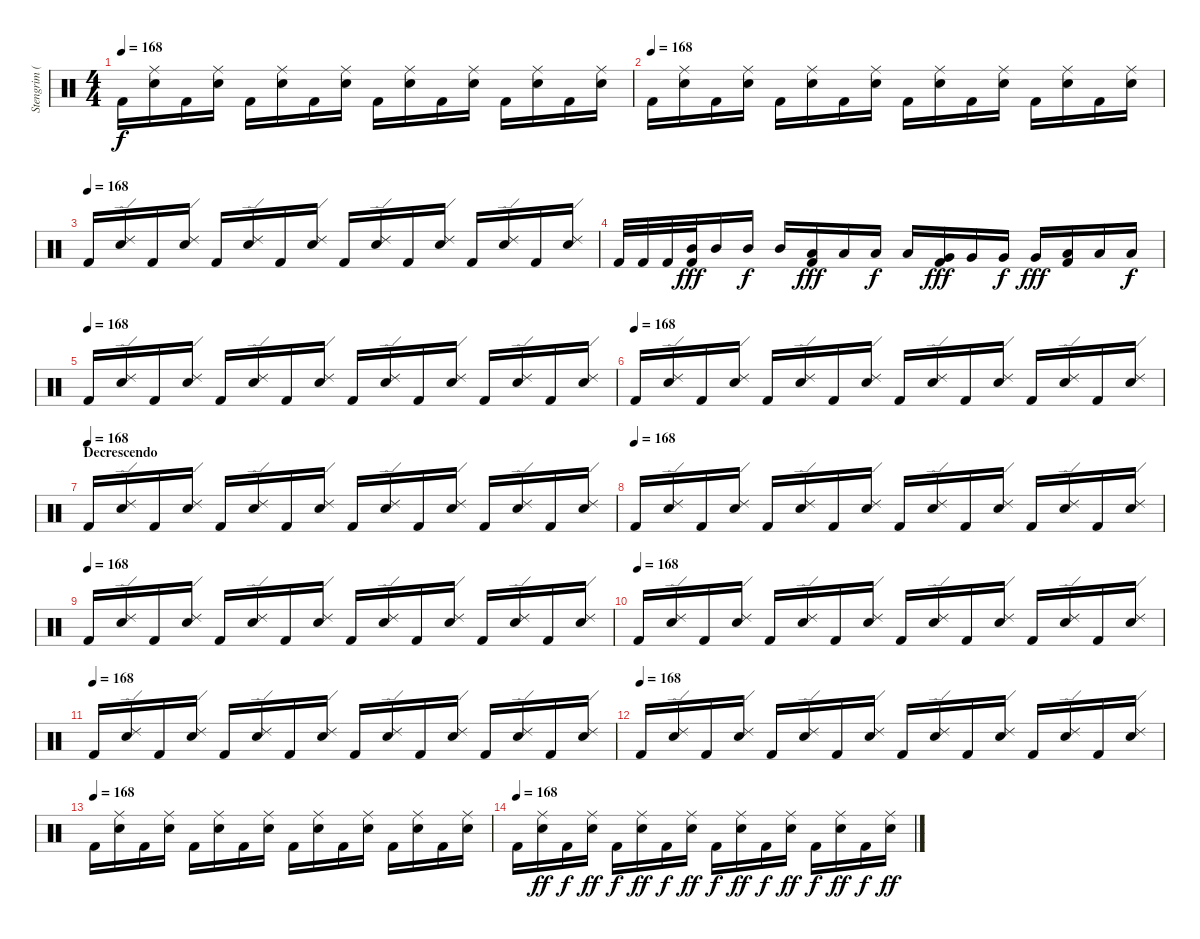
\track ("Stengrim ( Batterie )" "Stengrim (") {instrument percussion}
\staff {score}
\articulation defaults
\ts (4 4)
\tempo 168
\clef neutral
\ks c "Kick (hit) 2".16{dy f}
("Ride (middle)" "Electric Snare (hit)").16 "Kick (hit) 2".16 ("Ride (middle)" "Electric Snare (hit)").16 "Kick (hit) 2".16 ("Ride (middle)" "Electric Snare (hit)").16 "Kick (hit) 2".16 ("Ride (middle)" "Electric Snare (hit)").16 "Kick (hit) 2".16 ("Ride (middle)" "Electric Snare (hit)").16 "Kick (hit) 2".16 ("Ride (middle)" "Electric Snare (hit)").16 "Kick (hit) 2".16 ("Ride (middle)" "Electric Snare (hit)").16 "Kick (hit) 2".16 ("Ride (middle)" "Electric Snare (hit)").16 |
\tempo (168)
"Kick (hit) 2".16 ("Ride (middle)" "Electric Snare (hit)").16 "Kick (hit) 2".16 ("Ride (middle)" "Electric Snare (hit)").16 "Kick (hit) 2".16 ("Ride (middle)" "Electric Snare (hit)").16 "Kick (hit) 2".16 ("Ride (middle)" "Electric Snare (hit)").16 "Kick (hit) 2".16 ("Ride (middle)" "Electric Snare (hit)").16 "Kick (hit) 2".16 ("Ride (middle)" "Electric Snare (hit)").16 "Kick (hit) 2".16 ("Ride (middle)" "Electric Snare (hit)").16 "Kick (hit) 2".16 ("Ride (middle)" "Electric Snare (hit)").16 |
\tempo (168)
"Kick (hit) 2".16 ("Ride (edge) 2" "Electric Snare (hit)").16 "Kick (hit) 2".16 ("Ride (edge) 2" "Electric Snare (hit)").16 "Kick (hit) 2".16 ("Ride (edge) 2" "Electric Snare (hit)").16 "Kick (hit) 2".16 ("Ride (edge) 2" "Electric Snare (hit)").16 "Kick (hit) 2".16 ("Ride (edge) 2" "Electric Snare (hit)").16 "Kick (hit) 2".16 ("Ride (edge) 2" "Electric Snare (hit)").16 "Kick (hit) 2".16 ("Ride (edge) 2" "Electric Snare (hit)").16 "Kick (hit) 2".16 ("Ride (edge) 2" "Electric Snare (hit)").16 |
"Kick (hit) 2".32 "Kick (hit) 2".32 "Kick (hit) 2".32 ("Mid Tom (hit)" "Kick (hit) 2").32{dy fff} "Mid Tom (hit)".16 "Mid Tom (hit)".16{dy f} "Mid Tom (hit)".16 ("Low Tom (hit)" "Kick (hit) 2").16{dy fff} "Low Tom (hit)".16 "Low Tom (hit)".16{dy f} "Low Tom (hit)".16 ("Very Low Tom (hit)" "Kick (hit) 2").16{dy fff} "Very Low Tom (hit)".16 "Very Low Tom (hit)".16{dy f} "Very Low Tom (hit)".16{dy fff} ("Low Floor Tom (hit)" "Kick (hit) 2").16 "Low Floor Tom (hit)".16 "Low Floor Tom (hit)".16{dy f} |
\tempo (168)
"Kick (hit) 2".16 ("Ride (edge) 2" "Electric Snare (hit)").16 "Kick (hit) 2".16 ("Ride (edge) 2" "Electric Snare (hit)").16 "Kick (hit) 2".16 ("Ride (edge) 2" "Electric Snare (hit)").16 "Kick (hit) 2".16 ("Ride (edge) 2" "Electric Snare (hit)").16 "Kick (hit) 2".16 ("Ride (edge) 2" "Electric Snare (hit)").16 "Kick (hit) 2".16 ("Ride (edge) 2" "Electric Snare (hit)").16 "Kick (hit) 2".16 ("Ride (edge) 2" "Electric Snare (hit)").16 "Kick (hit) 2".16 ("Ride (edge) 2" "Electric Snare (hit)").16 |
\tempo (168)
"Kick (hit) 2".16 ("Ride (edge) 2" "Electric Snare (hit)").16 "Kick (hit) 2".16 ("Ride (edge) 2" "Electric Snare (hit)").16 "Kick (hit) 2".16 ("Ride (edge) 2" "Electric Snare (hit)").16 "Kick (hit) 2".16 ("Ride (edge) 2" "Electric Snare (hit)").16 "Kick (hit) 2".16 ("Ride (edge) 2" "Electric Snare (hit)").16 "Kick (hit) 2".16 ("Ride (edge) 2" "Electric Snare (hit)").16 "Kick (hit) 2".16 ("Ride (edge) 2" "Electric Snare (hit)").16 "Kick (hit) 2".16 ("Ride (edge) 2" "Electric Snare (hit)").16 |
\section ("" "Decrescendo")
\tempo (168)
"Kick (hit) 2".16{volume 14} ("Ride (edge) 2" "Electric Snare (hit)").16 "Kick (hit) 2".16 ("Ride (edge) 2" "Electric Snare (hit)").16 "Kick (hit) 2".16 ("Ride (edge) 2" "Electric Snare (hit)").16 "Kick (hit) 2".16 ("Ride (edge) 2" "Electric Snare (hit)").16 "Kick (hit) 2".16 ("Ride (edge) 2" "Electric Snare (hit)").16 "Kick (hit) 2".16 ("Ride (edge) 2" "Electric Snare (hit)").16 "Kick (hit) 2".16 ("Ride (edge) 2" "Electric Snare (hit)").16 "Kick (hit) 2".16 ("Ride (edge) 2" "Electric Snare (hit)").16 |
\tempo (168)
"Kick (hit) 2".16{volume 12} ("Ride (edge) 2" "Electric Snare (hit)").16 "Kick (hit) 2".16 ("Ride (edge) 2" "Electric Snare (hit)").16 "Kick (hit) 2".16 ("Ride (edge) 2" "Electric Snare (hit)").16 "Kick (hit) 2".16 ("Ride (edge) 2" "Electric Snare (hit)").16 "Kick (hit) 2".16 ("Ride (edge) 2" "Electric Snare (hit)").16 "Kick (hit) 2".16 ("Ride (edge) 2" "Electric Snare (hit)").16 "Kick (hit) 2".16 ("Ride (edge) 2" "Electric Snare (hit)").16 "Kick (hit) 2".16 ("Ride (edge) 2" "Electric Snare (hit)").16 |
\tempo (168)
"Kick (hit) 2".16{volume 10} ("Ride (edge) 2" "Electric Snare (hit)").16 "Kick (hit) 2".16 ("Ride (edge) 2" "Electric Snare (hit)").16 "Kick (hit) 2".16 ("Ride (edge) 2" "Electric Snare (hit)").16 "Kick (hit) 2".16 ("Ride (edge) 2" "Electric Snare (hit)").16 "Kick (hit) 2".16 ("Ride (edge) 2" "Electric Snare (hit)").16 "Kick (hit) 2".16 ("Ride (edge) 2" "Electric Snare (hit)").16 "Kick (hit) 2".16 ("Ride (edge) 2" "Electric Snare (hit)").16 "Kick (hit) 2".16 ("Ride (edge) 2" "Electric Snare (hit)").16 |
\tempo (168)
"Kick (hit) 2".16{volume 8} ("Ride (edge) 2" "Electric Snare (hit)").16 "Kick (hit) 2".16 ("Ride (edge) 2" "Electric Snare (hit)").16 "Kick (hit) 2".16 ("Ride (edge) 2" "Electric Snare (hit)").16 "Kick (hit) 2".16 ("Ride (edge) 2" "Electric Snare (hit)").16 "Kick (hit) 2".16 ("Ride (edge) 2" "Electric Snare (hit)").16 "Kick (hit) 2".16 ("Ride (edge) 2" "Electric Snare (hit)").16 "Kick (hit) 2".16 ("Ride (edge) 2" "Electric Snare (hit)").16 "Kick (hit) 2".16 ("Ride (edge) 2" "Electric Snare (hit)").16 |
\tempo (168)
"Kick (hit) 2".16{volume 6} ("Ride (edge) 2" "Electric Snare (hit)").16 "Kick (hit) 2".16 ("Ride (edge) 2" "Electric Snare (hit)").16 "Kick (hit) 2".16 ("Ride (edge) 2" "Electric Snare (hit)").16 "Kick (hit) 2".16 ("Ride (edge) 2" "Electric Snare (hit)").16 "Kick (hit) 2".16 ("Ride (edge) 2" "Electric Snare (hit)").16 "Kick (hit) 2".16 ("Ride (edge) 2" "Electric Snare (hit)").16 "Kick (hit) 2".16 ("Ride (edge) 2" "Electric Snare (hit)").16 "Kick (hit) 2".16 ("Ride (edge) 2" "Electric Snare (hit)").16 |
\tempo (168)
"Kick (hit) 2".16{volume 4} ("Ride (edge) 2" "Electric Snare (hit)").16 "Kick (hit) 2".16 ("Ride (edge) 2" "Electric Snare (hit)").16 "Kick (hit) 2".16 ("Ride (edge) 2" "Electric Snare (hit)").16 "Kick (hit) 2".16 ("Ride (edge) 2" "Electric Snare (hit)").16 "Kick (hit) 2".16 ("Ride (edge) 2" "Electric Snare (hit)").16 "Kick (hit) 2".16 ("Ride (edge) 2" "Electric Snare (hit)").16 "Kick (hit) 2".16 ("Ride (edge) 2" "Electric Snare (hit)").16 "Kick (hit) 2".16 ("Ride (edge) 2" "Electric Snare (hit)").16 |
\tempo (168)
"Kick (hit) 2".16{volume 2} ("Ride (middle)" "Electric Snare (hit)").16 "Kick (hit) 2".16 ("Ride (middle)" "Electric Snare (hit)").16 "Kick (hit) 2".16 ("Ride (middle)" "Electric Snare (hit)").16 "Kick (hit) 2".16 ("Ride (middle)" "Electric Snare (hit)").16 "Kick (hit) 2".16 ("Ride (middle)" "Electric Snare (hit)").16 "Kick (hit) 2".16 ("Ride (middle)" "Electric Snare (hit)").16 "Kick (hit) 2".16 ("Ride (middle)" "Electric Snare (hit)").16 "Kick (hit) 2".16 ("Ride (middle)" "Electric Snare (hit)").16 |
\tempo (168)
"Kick (hit) 2".16{volume 0} ("Ride (middle)" "Electric Snare (hit)").16{dy ff} "Kick (hit) 2".16{dy f} ("Ride (middle)" "Electric Snare (hit)").16{dy ff} "Kick (hit) 2".16{dy f} ("Ride (middle)" "Electric Snare (hit)").16{dy ff} "Kick (hit) 2".16{dy f} ("Ride (middle)" "Electric Snare (hit)").16{dy ff} "Kick (hit) 2".16{dy f} ("Ride (middle)" "Electric Snare (hit)").16{dy ff} "Kick (hit) 2".16{dy f} ("Ride (middle)" "Electric Snare (hit)").16{dy ff} "Kick (hit) 2".16{dy f} ("Ride (middle)" "Electric Snare (hit)").16{dy ff} "Kick (hit) 2".16{dy f} ("Ride (middle)" "Electric Snare (hit)").16{dy ff}
